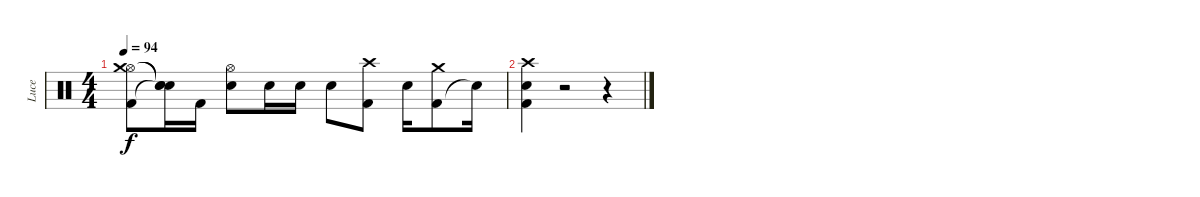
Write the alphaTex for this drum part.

\track ("Luce" "Luce") {instrument percussion}
\staff {score}
\articulation defaults
\ts (4 4)
\tempo 94
\clef neutral
\ks c
("Hi-Hat (open)" "Crash medium (hit)" "Kick (hit) 2").8{dy f} ("Snare (hit)"{t} "Snare (hit)"{t} "Snare (hit)"{t}).16 "Kick (hit) 2".16 ("Hi-Hat (open)" "Electric Snare (hit)").8 "Electric Snare (hit)".16 "Electric Snare (hit)".16 "Electric Snare (hit)".8 ("Kick (hit) 2" "Crash high (hit)").8 "Electric Snare (hit)".16 ("Kick (hit) 2" "Crash medium (hit)").8 "Electric Snare (hit)"{t}.16 |
("Crash high (hit)" "Kick (hit) 2" "Electric Snare (hit)").4 r.2 r.4
